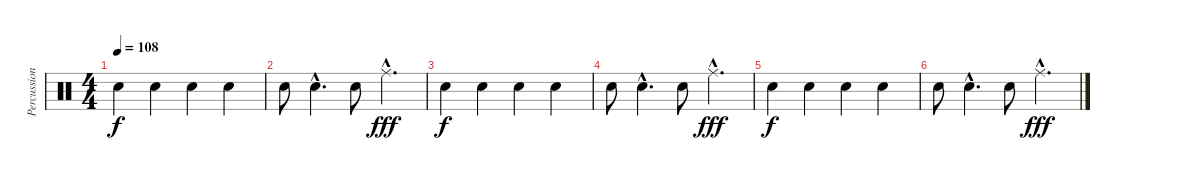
\track ("Percussion" "Percussion") {instrument percussion}
\staff {score}
\articulation defaults
\ts (4 4)
\tempo 108
\clef neutral
\ks c "Snare (hit) 2".4{dy f} "Snare (hit) 2".4 "Snare (hit) 2".4 "Snare (hit) 2".4
|
"Snare (hit) 2".8 "Snare (hit) 2"{hac}.4{d} "Snare (hit) 2".8 "Ride (middle)"{hac}.4{d dy fff} |
"Snare (hit) 2".4{dy f} "Snare (hit) 2".4 "Snare (hit) 2".4 "Snare (hit) 2".4 |
"Snare (hit) 2".8 "Snare (hit) 2"{hac}.4{d} "Snare (hit) 2".8 "Ride (middle)"{hac}.4{d dy fff} |
"Snare (hit) 2".4{dy f} "Snare (hit) 2".4 "Snare (hit) 2".4 "Snare (hit) 2".4 |
"Snare (hit) 2".8 "Snare (hit) 2"{hac}.4{d} "Snare (hit) 2".8 "Ride (middle)"{hac}.4{d dy fff}
